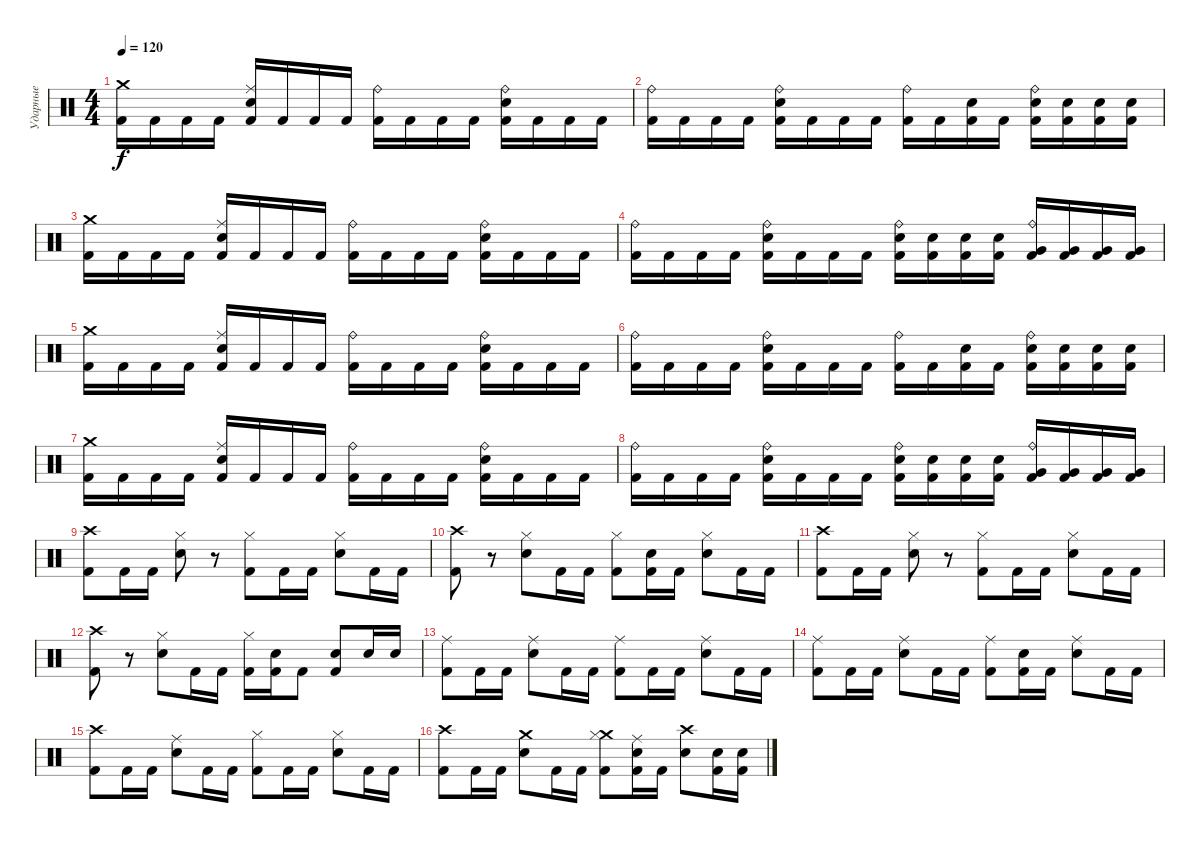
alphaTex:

\track ("Ударные" "Ударные") {instrument percussion}
\staff {score}
\articulation defaults
\ts (4 4)
\tempo 120
\clef neutral
\ks c
("Crash medium (hit)" "Kick (hit) 2").16{dy f} "Kick (hit) 2".16 "Kick (hit) 2".16 "Kick (hit) 2".16 ("Ride (middle)" "Electric Snare (hit)" "Kick (hit) 2").16 "Kick (hit) 2".16 "Kick (hit) 2".16 "Kick (hit) 2".16 ("Ride (bell)" "Kick (hit) 2").16 "Kick (hit) 2".16 "Kick (hit) 2".16 "Kick (hit) 2".16 ("Ride (bell)" "Electric Snare (hit)" "Kick (hit) 2").16 "Kick (hit) 2".16 "Kick (hit) 2".16 "Kick (hit) 2".16 |
("Ride (bell)" "Kick (hit) 2").16 "Kick (hit) 2".16 "Kick (hit) 2".16 "Kick (hit) 2".16 ("Ride (bell)" "Electric Snare (hit)" "Kick (hit) 2").16 "Kick (hit) 2".16 "Kick (hit) 2".16 "Kick (hit) 2".16 ("Ride (bell)" "Kick (hit) 2").16 "Kick (hit) 2".16 ("Electric Snare (hit)" "Kick (hit) 2").16 "Kick (hit) 2".16 ("Ride (bell)" "Electric Snare (hit)" "Kick (hit) 2").16 ("Electric Snare (hit)" "Kick (hit) 2").16 ("Electric Snare (hit)" "Kick (hit) 2").16 ("Electric Snare (hit)" "Kick (hit) 2").16 |
("Crash medium (hit)" "Kick (hit) 2").16 "Kick (hit) 2".16 "Kick (hit) 2".16 "Kick (hit) 2".16 ("Ride (middle)" "Electric Snare (hit)" "Kick (hit) 2").16 "Kick (hit) 2".16 "Kick (hit) 2".16 "Kick (hit) 2".16 ("Ride (bell)" "Kick (hit) 2").16 "Kick (hit) 2".16 "Kick (hit) 2".16 "Kick (hit) 2".16 ("Ride (bell)" "Electric Snare (hit)" "Kick (hit) 2").16 "Kick (hit) 2".16 "Kick (hit) 2".16 "Kick (hit) 2".16 |
("Ride (bell)" "Kick (hit) 2").16 "Kick (hit) 2".16 "Kick (hit) 2".16 "Kick (hit) 2".16 ("Ride (bell)" "Electric Snare (hit)" "Kick (hit) 2").16 "Kick (hit) 2".16 "Kick (hit) 2".16 "Kick (hit) 2".16 ("Ride (bell)" "Electric Snare (hit)" "Kick (hit) 2").16 ("Electric Snare (hit)" "Kick (hit) 2").16 ("Electric Snare (hit)" "Kick (hit) 2").16 ("Electric Snare (hit)" "Kick (hit) 2").16 ("Ride (bell)" "Very Low Tom (hit)" "Kick (hit) 2").16 ("Very Low Tom (hit)" "Kick (hit) 2").16 ("Very Low Tom (hit)" "Kick (hit) 2").16 ("Very Low Tom (hit)" "Kick (hit) 2").16 |
("Crash medium (hit)" "Kick (hit) 2").16 "Kick (hit) 2".16 "Kick (hit) 2".16 "Kick (hit) 2".16 ("Ride (middle)" "Electric Snare (hit)" "Kick (hit) 2").16 "Kick (hit) 2".16 "Kick (hit) 2".16 "Kick (hit) 2".16 ("Ride (bell)" "Kick (hit) 2").16 "Kick (hit) 2".16 "Kick (hit) 2".16 "Kick (hit) 2".16 ("Ride (bell)" "Electric Snare (hit)" "Kick (hit) 2").16 "Kick (hit) 2".16 "Kick (hit) 2".16 "Kick (hit) 2".16 |
("Ride (bell)" "Kick (hit) 2").16 "Kick (hit) 2".16 "Kick (hit) 2".16 "Kick (hit) 2".16 ("Ride (bell)" "Electric Snare (hit)" "Kick (hit) 2").16 "Kick (hit) 2".16 "Kick (hit) 2".16 "Kick (hit) 2".16 ("Ride (bell)" "Kick (hit) 2").16 "Kick (hit) 2".16 ("Electric Snare (hit)" "Kick (hit) 2").16 "Kick (hit) 2".16 ("Ride (bell)" "Electric Snare (hit)" "Kick (hit) 2").16 ("Electric Snare (hit)" "Kick (hit) 2").16 ("Electric Snare (hit)" "Kick (hit) 2").16 ("Electric Snare (hit)" "Kick (hit) 2").16 |
("Crash medium (hit)" "Kick (hit) 2").16 "Kick (hit) 2".16 "Kick (hit) 2".16 "Kick (hit) 2".16 ("Ride (middle)" "Electric Snare (hit)" "Kick (hit) 2").16 "Kick (hit) 2".16 "Kick (hit) 2".16 "Kick (hit) 2".16 ("Ride (bell)" "Kick (hit) 2").16 "Kick (hit) 2".16 "Kick (hit) 2".16 "Kick (hit) 2".16 ("Ride (bell)" "Electric Snare (hit)" "Kick (hit) 2").16 "Kick (hit) 2".16 "Kick (hit) 2".16 "Kick (hit) 2".16 |
("Ride (bell)" "Kick (hit) 2").16 "Kick (hit) 2".16 "Kick (hit) 2".16 "Kick (hit) 2".16 ("Ride (bell)" "Electric Snare (hit)" "Kick (hit) 2").16 "Kick (hit) 2".16 "Kick (hit) 2".16 "Kick (hit) 2".16 ("Ride (bell)" "Electric Snare (hit)" "Kick (hit) 2").16 ("Electric Snare (hit)" "Kick (hit) 2").16 ("Electric Snare (hit)" "Kick (hit) 2").16 ("Electric Snare (hit)" "Kick (hit) 2").16 ("Ride (bell)" "Very Low Tom (hit)" "Kick (hit) 2").16 ("Very Low Tom (hit)" "Kick (hit) 2").16 ("Very Low Tom (hit)" "Kick (hit) 2").16 ("Very Low Tom (hit)" "Kick (hit) 2").16 |
("Crash high (hit)" "Kick (hit) 2").8 "Kick (hit) 2".16 "Kick (hit) 2".16 ("Hi-Hat (closed)" "Electric Snare (hit)").8 r.8 ("Hi-Hat (closed)" "Kick (hit) 2").8 "Kick (hit) 2".16 "Kick (hit) 2".16 ("Hi-Hat (closed)" "Electric Snare (hit)").8 "Kick (hit) 2".16 "Kick (hit) 2".16 |
("Crash high (hit)" "Kick (hit) 2").8 r.8 ("Hi-Hat (closed)" "Electric Snare (hit)").8 "Kick (hit) 2".16 "Kick (hit) 2".16 ("Hi-Hat (closed)" "Kick (hit) 2").8 ("Electric Snare (hit)" "Kick (hit) 2").16 "Kick (hit) 2".16 ("Hi-Hat (closed)" "Electric Snare (hit)").8 "Kick (hit) 2".16 "Kick (hit) 2".16 |
("Crash high (hit)" "Kick (hit) 2").8 "Kick (hit) 2".16 "Kick (hit) 2".16 ("Hi-Hat (closed)" "Electric Snare (hit)").8 r.8 ("Hi-Hat (closed)" "Kick (hit) 2").8 "Kick (hit) 2".16 "Kick (hit) 2".16 ("Hi-Hat (closed)" "Electric Snare (hit)").8 "Kick (hit) 2".16 "Kick (hit) 2".16 |
("Crash high (hit)" "Kick (hit) 2").8 r.8 ("Hi-Hat (closed)" "Electric Snare (hit)").8 "Kick (hit) 2".16 "Kick (hit) 2".16 ("Hi-Hat (closed)" "Kick (hit) 2").16 ("Electric Snare (hit)" "Kick (hit) 2").16 "Kick (hit) 2".8 ("Electric Snare (hit)" "Kick (hit) 2").8 "Electric Snare (hit)".16 "Electric Snare (hit)".16 |
("Ride (middle)" "Kick (hit) 2").8 "Kick (hit) 2".16 "Kick (hit) 2".16 ("Ride (middle)" "Electric Snare (hit)").8 "Kick (hit) 2".16 "Kick (hit) 2".16 ("Ride (middle)" "Kick (hit) 2").8 "Kick (hit) 2".16 "Kick (hit) 2".16 ("Ride (middle)" "Electric Snare (hit)").8 "Kick (hit) 2".16 "Kick (hit) 2".16 |
("Ride (middle)" "Kick (hit) 2").8 "Kick (hit) 2".16 "Kick (hit) 2".16 ("Ride (middle)" "Electric Snare (hit)").8 "Kick (hit) 2".16 "Kick (hit) 2".16 ("Ride (middle)" "Kick (hit) 2").8 ("Electric Snare (hit)" "Kick (hit) 2").16 "Kick (hit) 2".16 ("Ride (middle)" "Electric Snare (hit)").8 "Kick (hit) 2".16 "Kick (hit) 2".16 |
("Crash high (hit)" "Kick (hit) 2").8 "Kick (hit) 2".16 "Kick (hit) 2".16 ("Ride (middle)" "Electric Snare (hit)").8 "Kick (hit) 2".16 "Kick (hit) 2".16 ("Hi-Hat (closed)" "Kick (hit) 2").8 "Kick (hit) 2".16 "Kick (hit) 2".16 ("Hi-Hat (closed)" "Electric Snare (hit)").8 "Kick (hit) 2".16 "Kick (hit) 2".16 |
("Crash high (hit)" "Kick (hit) 2").8 "Kick (hit) 2".16 "Kick (hit) 2".16 ("Crash medium (hit)" "Electric Snare (hit)").8 "Kick (hit) 2".16 "Kick (hit) 2".16 ("Crash medium (hit)" "Hi-Hat (closed)" "Kick (hit) 2").8 ("Ride (middle)" "Electric Snare (hit)" "Kick (hit) 2").16 "Kick (hit) 2".16 ("Crash high (hit)" "Electric Snare (hit)").8 ("Electric Snare (hit)" "Kick (hit) 2").16 ("Electric Snare (hit)" "Kick (hit) 2").16
